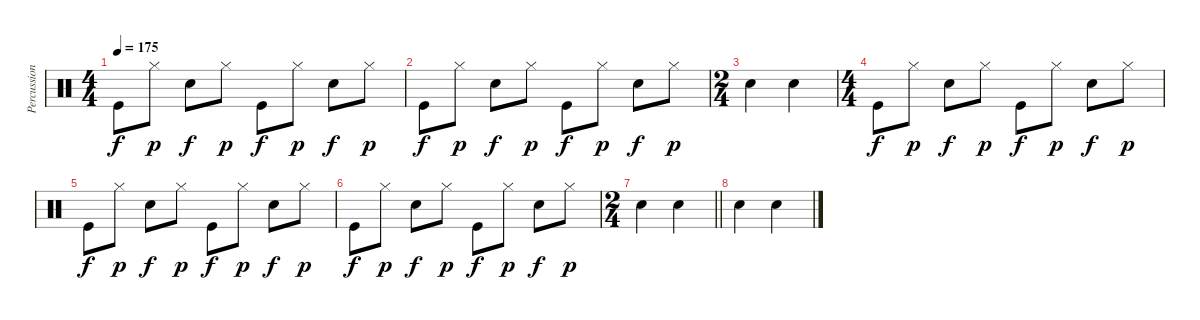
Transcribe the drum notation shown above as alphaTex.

\track ("Percussion" "Percussion") {instrument percussion}
\staff {score}
\articulation defaults
\ts (4 4)
\tempo 175
\clef neutral
\ks c "Kick (hit)".8{dy f} "Hi-Hat (closed)".8{dy p} "Snare (hit) 2".8{dy f} "Hi-Hat (closed)".8{dy p} "Kick (hit)".8{dy f} "Hi-Hat (closed)".8{dy p} "Snare (hit) 2".8{dy f} "Hi-Hat (closed)".8{dy p}
|
"Kick (hit)".8{dy f} "Hi-Hat (closed)".8{dy p} "Snare (hit) 2".8{dy f} "Hi-Hat (closed)".8{dy p} "Kick (hit)".8{dy f} "Hi-Hat (closed)".8{dy p} "Snare (hit) 2".8{dy f} "Hi-Hat (closed)".8{dy p} |
\ts (2 4)
"Snare (hit) 2".4 "Snare (hit) 2".4 |
\ts (4 4)
"Kick (hit)".8{dy f} "Hi-Hat (closed)".8{dy p} "Snare (hit) 2".8{dy f} "Hi-Hat (closed)".8{dy p} "Kick (hit)".8{dy f} "Hi-Hat (closed)".8{dy p} "Snare (hit) 2".8{dy f} "Hi-Hat (closed)".8{dy p} |
"Kick (hit)".8{dy f} "Hi-Hat (closed)".8{dy p} "Snare (hit) 2".8{dy f} "Hi-Hat (closed)".8{dy p} "Kick (hit)".8{dy f} "Hi-Hat (closed)".8{dy p} "Snare (hit) 2".8{dy f} "Hi-Hat (closed)".8{dy p} |
"Kick (hit)".8{dy f} "Hi-Hat (closed)".8{dy p} "Snare (hit) 2".8{dy f} "Hi-Hat (closed)".8{dy p} "Kick (hit)".8{dy f} "Hi-Hat (closed)".8{dy p} "Snare (hit) 2".8{dy f} "Hi-Hat (closed)".8{dy p} |
\ts (2 4)
\barLineRight lightlight "Snare (hit) 2".4 "Snare (hit) 2".4
|
"Snare (hit) 2".4 "Snare (hit) 2".4
